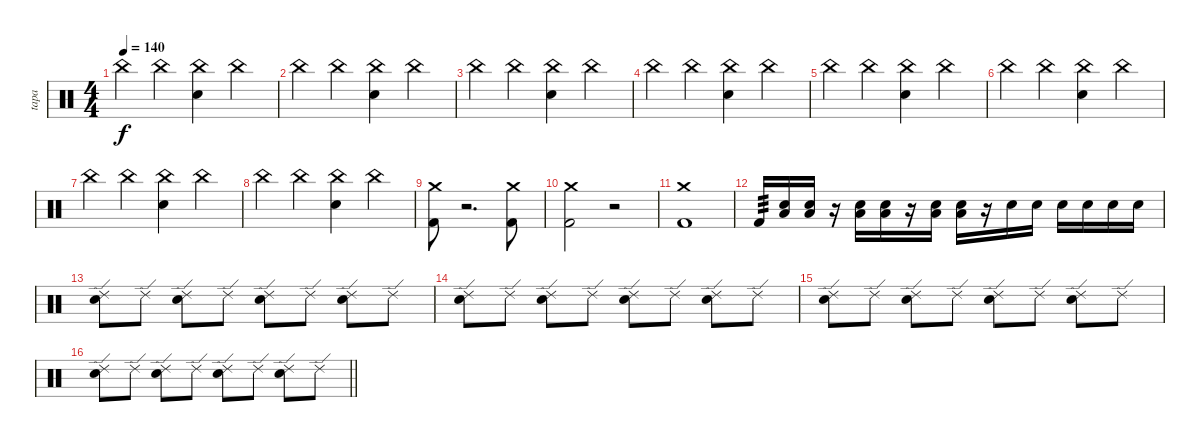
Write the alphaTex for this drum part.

\track ("tapa" "tapa") {instrument percussion}
\staff {score}
\articulation defaults
\ts (4 4)
\tempo 140
\clef neutral
\ks c "China (hit)".4{dy f} "China (hit)".4
("China (hit)" "Snare (hit) 2").4 "China (hit)".4 |
"China (hit)".4 "China (hit)".4 ("China (hit)" "Snare (hit) 2").4 "China (hit)".4 |
"China (hit)".4 "China (hit)".4 ("China (hit)" "Snare (hit) 2").4 "China (hit)".4 |
"China (hit)".4 "China (hit)".4 ("China (hit)" "Snare (hit) 2").4 "China (hit)".4 |
"China (hit)".4 "China (hit)".4 ("China (hit)" "Snare (hit) 2").4 "China (hit)".4 |
"China (hit)".4 "China (hit)".4 ("China (hit)" "Snare (hit) 2").4 "China (hit)".4 |
"China (hit)".4 "China (hit)".4 ("China (hit)" "Snare (hit) 2").4 "China (hit)".4 |
"China (hit)".4 "China (hit)".4 ("China (hit)" "Snare (hit) 2").4 "China (hit)".4 |
("Crash medium (hit)" "Kick (hit) 2").8 r.2{d} ("Crash medium (hit)" "Kick (hit) 2").8 |
("Kick (hit) 2" "Crash medium (hit)").2 r.2 |
("Kick (hit) 2" "Crash medium (hit)").1 |
"Kick (hit) 2".16{tp 3} ("Low Floor Tom (hit)" "Snare (hit) 2").16 ("Low Floor Tom (hit)" "Snare (hit) 2").16 r.16 ("Low Floor Tom (hit)" "Snare (hit) 2").16 ("Snare (hit) 2" "Low Floor Tom (hit)").16 r.16 ("Low Floor Tom (hit)" "Snare (hit) 2").16 ("Low Floor Tom (hit)" "Snare (hit) 2").16 r.16 "Snare (hit) 2".16 "Snare (hit) 2".16 "Snare (hit) 2".16 "Snare (hit) 2".16 "Snare (hit) 2".16 "Snare (hit) 2".16 |
("Ride (edge) 2" "Snare (hit) 2").8 "Ride (edge) 2".8 ("Ride (edge) 2" "Snare (hit) 2").8 "Ride (edge) 2".8 ("Ride (edge) 2" "Snare (hit) 2").8 "Ride (edge) 2".8 ("Ride (edge) 2" "Snare (hit) 2").8 "Ride (edge) 2".8 |
("Ride (edge) 2" "Snare (hit) 2").8 "Ride (edge) 2".8 ("Ride (edge) 2" "Snare (hit) 2").8 "Ride (edge) 2".8 ("Ride (edge) 2" "Snare (hit) 2").8 "Ride (edge) 2".8 ("Ride (edge) 2" "Snare (hit) 2").8 "Ride (edge) 2".8 |
("Ride (edge) 2" "Snare (hit) 2").8 "Ride (edge) 2".8 ("Ride (edge) 2" "Snare (hit) 2").8 "Ride (edge) 2".8 ("Ride (edge) 2" "Snare (hit) 2").8 "Ride (edge) 2".8 ("Ride (edge) 2" "Snare (hit) 2").8 "Ride (edge) 2".8 |
\barLineRight lightlight
("Ride (edge) 2" "Snare (hit) 2").8 "Ride (edge) 2".8 ("Ride (edge) 2" "Snare (hit) 2").8 "Ride (edge) 2".8 ("Ride (edge) 2" "Snare (hit) 2").8 "Ride (edge) 2".8 ("Ride (edge) 2" "Snare (hit) 2").8 "Ride (edge) 2".8
